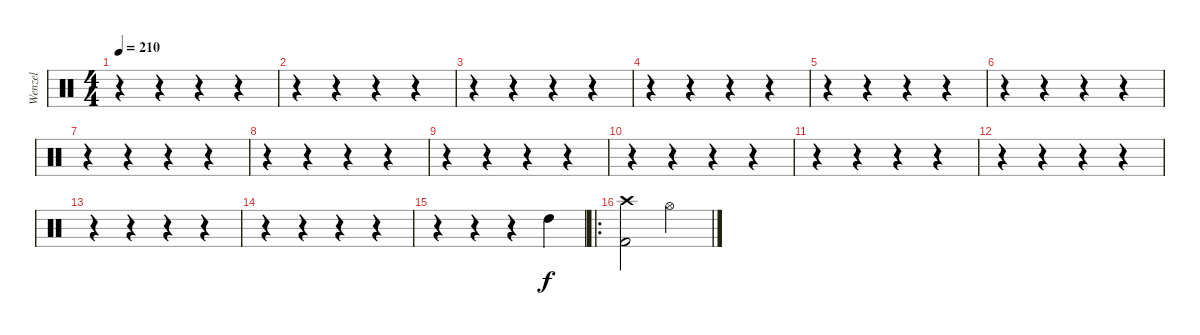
\track ("Wenzel" "Wenzel") {instrument percussion}
\staff {score}
\articulation defaults
\ts (4 4)
\tempo 210
\clef neutral
\ks c
r.4{dy ff} r.4 r.4 r.4 |
r.4 r.4 r.4 r.4 |
r.4 r.4 r.4 r.4 |
r.4 r.4 r.4 r.4 |
r.4 r.4 r.4 r.4 |
r.4 r.4 r.4 r.4 |
r.4 r.4 r.4 r.4 |
r.4 r.4 r.4 r.4 |
r.4 r.4 r.4 r.4 |
r.4 r.4 r.4 r.4 |
r.4 r.4 r.4 r.4 |
r.4 r.4 r.4 r.4 |
r.4 r.4 r.4 r.4 |
r.4 r.4 r.4 r.4 |
r.4 r.4 r.4 "High Tom (hit)".4{dy f} |
\ro
("Crash high (hit)" "Kick (hit) 2").2 "Hi-Hat (open)".2
